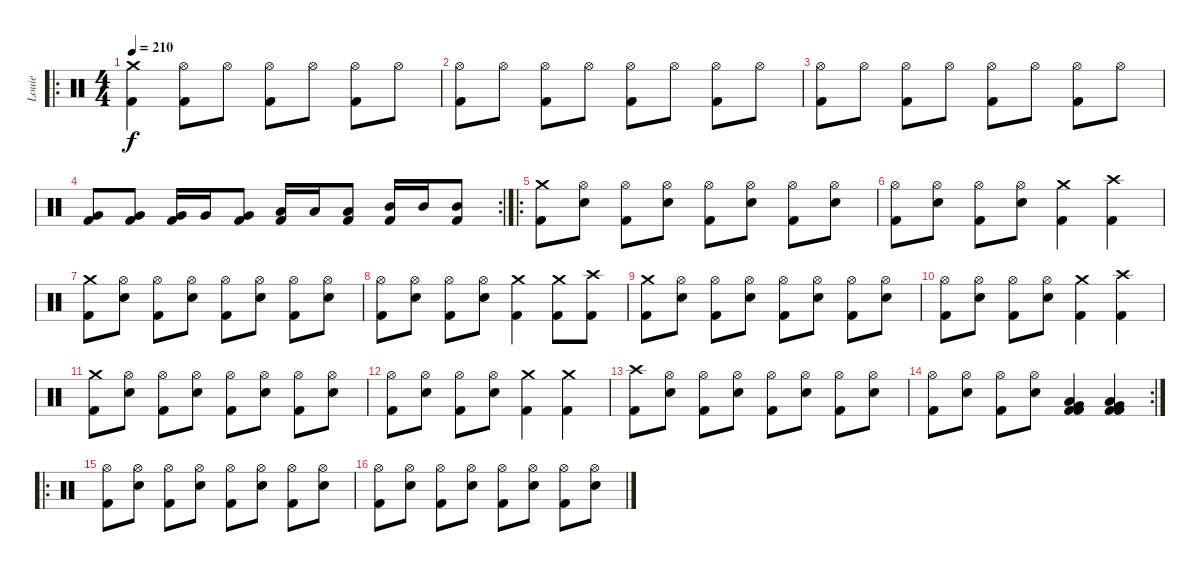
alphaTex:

\track ("Louie" "Louie") {instrument percussion}
\staff {score}
\articulation defaults
\ro
\ts (4 4)
\tempo 210
\clef neutral
\ks c
("Crash medium (hit)" "Kick (hit) 2").4{dy f} ("Hi-Hat (open)" "Kick (hit) 2").8 "Hi-Hat (open)".8 ("Hi-Hat (open)" "Kick (hit) 2").8 "Hi-Hat (open)".8 ("Hi-Hat (open)" "Kick (hit) 2").8 "Hi-Hat (open)".8 |
("Hi-Hat (open)" "Kick (hit) 2").8 "Hi-Hat (open)".8 ("Hi-Hat (open)" "Kick (hit) 2").8 "Hi-Hat (open)".8 ("Hi-Hat (open)" "Kick (hit) 2").8 "Hi-Hat (open)".8 ("Hi-Hat (open)" "Kick (hit) 2").8 "Hi-Hat (open)".8 |
("Hi-Hat (open)" "Kick (hit) 2").8 "Hi-Hat (open)".8 ("Hi-Hat (open)" "Kick (hit) 2").8 "Hi-Hat (open)".8 ("Hi-Hat (open)" "Kick (hit) 2").8 "Hi-Hat (open)".8 ("Hi-Hat (open)" "Kick (hit) 2").8 "Hi-Hat (open)".8 |
\rc 2
("Very Low Tom (hit)" "Kick (hit) 2").8 ("Very Low Tom (hit)" "Kick (hit) 2").8 ("Very Low Tom (hit)" "Kick (hit) 2").16 "Very Low Tom (hit)".16 ("Very Low Tom (hit)" "Kick (hit) 2").8 ("Low Tom (hit)" "Kick (hit) 2").16 "Low Tom (hit)".16 ("Low Tom (hit)" "Kick (hit) 2").8 ("Mid Tom (hit)" "Kick (hit) 2").16 "Mid Tom (hit)".16 ("Mid Tom (hit)" "Kick (hit) 2").8 |
\ro
("Crash medium (hit)" "Kick (hit) 2").8 ("Hi-Hat (open)" "Snare (hit) 2").8 ("Hi-Hat (open)" "Kick (hit) 2").8 ("Hi-Hat (open)" "Snare (hit) 2").8 ("Hi-Hat (open)" "Kick (hit) 2").8 ("Hi-Hat (open)" "Snare (hit) 2").8 ("Hi-Hat (open)" "Kick (hit) 2").8 ("Hi-Hat (open)" "Snare (hit) 2").8 |
("Hi-Hat (open)" "Kick (hit) 2").8 ("Hi-Hat (open)" "Snare (hit) 2").8 ("Hi-Hat (open)" "Kick (hit) 2").8 ("Hi-Hat (open)" "Snare (hit) 2").8 ("Crash medium (hit)" "Kick (hit) 2").4 ("Crash high (hit)" "Kick (hit) 2").4 |
("Crash medium (hit)" "Kick (hit) 2").8 ("Hi-Hat (open)" "Snare (hit) 2").8 ("Hi-Hat (open)" "Kick (hit) 2").8 ("Hi-Hat (open)" "Snare (hit) 2").8 ("Hi-Hat (open)" "Kick (hit) 2").8 ("Hi-Hat (open)" "Snare (hit) 2").8 ("Hi-Hat (open)" "Kick (hit) 2").8 ("Hi-Hat (open)" "Snare (hit) 2").8 |
("Hi-Hat (open)" "Kick (hit) 2").8 ("Hi-Hat (open)" "Snare (hit) 2").8 ("Hi-Hat (open)" "Kick (hit) 2").8 ("Hi-Hat (open)" "Snare (hit) 2").8 ("Crash medium (hit)" "Kick (hit) 2").4 ("Crash medium (hit)" "Kick (hit) 2").8 ("Crash high (hit)" "Kick (hit) 2").8 |
("Crash medium (hit)" "Kick (hit) 2").8 ("Hi-Hat (open)" "Snare (hit) 2").8 ("Hi-Hat (open)" "Kick (hit) 2").8 ("Hi-Hat (open)" "Snare (hit) 2").8 ("Hi-Hat (open)" "Kick (hit) 2").8 ("Hi-Hat (open)" "Snare (hit) 2").8 ("Hi-Hat (open)" "Kick (hit) 2").8 ("Hi-Hat (open)" "Snare (hit) 2").8 |
("Hi-Hat (open)" "Kick (hit) 2").8 ("Hi-Hat (open)" "Snare (hit) 2").8 ("Hi-Hat (open)" "Kick (hit) 2").8 ("Hi-Hat (open)" "Snare (hit) 2").8 ("Crash medium (hit)" "Kick (hit) 2").4 ("Crash high (hit)" "Kick (hit) 2").4 |
("Crash medium (hit)" "Kick (hit) 2").8 ("Hi-Hat (open)" "Snare (hit) 2").8 ("Hi-Hat (open)" "Kick (hit) 2").8 ("Hi-Hat (open)" "Snare (hit) 2").8 ("Hi-Hat (open)" "Kick (hit) 2").8 ("Hi-Hat (open)" "Snare (hit) 2").8 ("Hi-Hat (open)" "Kick (hit) 2").8 ("Hi-Hat (open)" "Snare (hit) 2").8 |
("Hi-Hat (open)" "Kick (hit) 2").8 ("Hi-Hat (open)" "Snare (hit) 2").8 ("Hi-Hat (open)" "Kick (hit) 2").8 ("Hi-Hat (open)" "Snare (hit) 2").8 ("Crash medium (hit)" "Kick (hit) 2").4 ("Crash medium (hit)" "Kick (hit) 2").4 |
("Crash high (hit)" "Kick (hit) 2").8 ("Hi-Hat (open)" "Snare (hit) 2").8 ("Hi-Hat (open)" "Kick (hit) 2").8 ("Hi-Hat (open)" "Snare (hit) 2").8 ("Hi-Hat (open)" "Kick (hit) 2").8 ("Hi-Hat (open)" "Snare (hit) 2").8 ("Hi-Hat (open)" "Kick (hit) 2").8 ("Hi-Hat (open)" "Snare (hit) 2").8 |
\rc 2
("Hi-Hat (open)" "Kick (hit) 2").8 ("Hi-Hat (open)" "Snare (hit) 2").8 ("Hi-Hat (open)" "Kick (hit) 2").8 ("Hi-Hat (open)" "Snare (hit) 2").8 ("Low Tom (hit)" "Very Low Tom (hit)" "Kick (hit) 2" "Kick (hit) 2").4 ("Low Tom (hit)" "Very Low Tom (hit)" "Kick (hit) 2" "Kick (hit) 2").4 |
\ro
("Hi-Hat (open)" "Kick (hit) 2").8 ("Hi-Hat (open)" "Snare (hit) 2").8 ("Hi-Hat (open)" "Kick (hit) 2").8 ("Hi-Hat (open)" "Snare (hit) 2").8 ("Hi-Hat (open)" "Kick (hit) 2").8 ("Hi-Hat (open)" "Snare (hit) 2").8 ("Hi-Hat (open)" "Kick (hit) 2").8 ("Hi-Hat (open)" "Snare (hit) 2").8 |
("Hi-Hat (open)" "Kick (hit) 2").8 ("Hi-Hat (open)" "Snare (hit) 2").8 ("Hi-Hat (open)" "Kick (hit) 2").8 ("Hi-Hat (open)" "Snare (hit) 2").8 ("Hi-Hat (open)" "Kick (hit) 2").8 ("Hi-Hat (open)" "Snare (hit) 2").8 ("Hi-Hat (open)" "Kick (hit) 2").8 ("Hi-Hat (open)" "Snare (hit) 2").8
